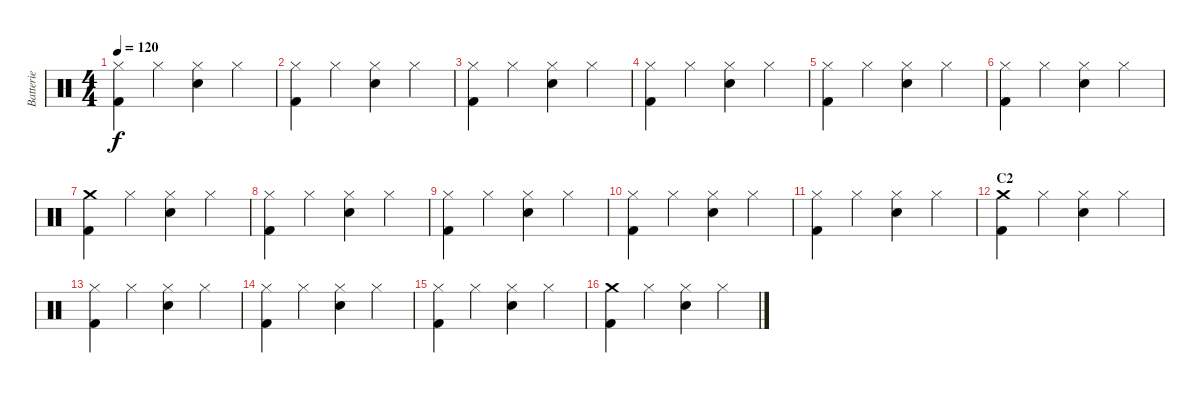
\track ("Batterie" "Batterie") {instrument percussion}
\staff {score}
\articulation defaults
\ts (4 4)
\tempo 120
\clef neutral
\ks c
("Hi-Hat (closed)" "Kick (hit) 2").4{dy f} "Hi-Hat (closed)".4 ("Hi-Hat (closed)" "Snare (hit) 2").4 "Hi-Hat (closed)".4 |
("Hi-Hat (closed)" "Kick (hit) 2").4 "Hi-Hat (closed)".4 ("Hi-Hat (closed)" "Snare (hit) 2").4 "Hi-Hat (closed)".4 |
("Hi-Hat (closed)" "Kick (hit) 2").4 "Hi-Hat (closed)".4 ("Hi-Hat (closed)" "Snare (hit) 2").4 "Hi-Hat (closed)".4 |
("Hi-Hat (closed)" "Kick (hit) 2").4 "Hi-Hat (closed)".4 ("Hi-Hat (closed)" "Snare (hit) 2").4 "Hi-Hat (closed)".4 |
("Hi-Hat (closed)" "Kick (hit) 2").4 "Hi-Hat (closed)".4 ("Hi-Hat (closed)" "Snare (hit) 2").4 "Hi-Hat (closed)".4 |
("Hi-Hat (closed)" "Kick (hit) 2").4 "Hi-Hat (closed)".4 ("Hi-Hat (closed)" "Snare (hit) 2").4 "Hi-Hat (closed)".4 |
("Crash medium (hit)" "Kick (hit) 2").4 "Hi-Hat (closed)".4 ("Hi-Hat (closed)" "Snare (hit) 2").4 "Hi-Hat (closed)".4 |
("Hi-Hat (closed)" "Kick (hit) 2").4 "Hi-Hat (closed)".4 ("Hi-Hat (closed)" "Snare (hit) 2").4 "Hi-Hat (closed)".4 |
("Hi-Hat (closed)" "Kick (hit) 2").4 "Hi-Hat (closed)".4 ("Hi-Hat (closed)" "Snare (hit) 2").4 "Hi-Hat (closed)".4 |
("Hi-Hat (closed)" "Kick (hit) 2").4 "Hi-Hat (closed)".4 ("Hi-Hat (closed)" "Snare (hit) 2").4 "Hi-Hat (closed)".4 |
("Hi-Hat (closed)" "Kick (hit) 2").4 "Hi-Hat (closed)".4 ("Hi-Hat (closed)" "Snare (hit) 2").4 "Hi-Hat (closed)".4 |
\section ("" "C2")
("Crash medium (hit)" "Kick (hit) 2").4 "Hi-Hat (closed)".4 ("Hi-Hat (closed)" "Snare (hit) 2").4 "Hi-Hat (closed)".4 |
("Hi-Hat (closed)" "Kick (hit) 2").4 "Hi-Hat (closed)".4 ("Hi-Hat (closed)" "Snare (hit) 2").4 "Hi-Hat (closed)".4 |
("Hi-Hat (closed)" "Kick (hit) 2").4 "Hi-Hat (closed)".4 ("Hi-Hat (closed)" "Snare (hit) 2").4 "Hi-Hat (closed)".4 |
("Hi-Hat (closed)" "Kick (hit) 2").4 "Hi-Hat (closed)".4 ("Hi-Hat (closed)" "Snare (hit) 2").4 "Hi-Hat (closed)".4 |
("Crash medium (hit)" "Kick (hit) 2").4 "Hi-Hat (closed)".4 ("Hi-Hat (closed)" "Snare (hit) 2").4 "Hi-Hat (closed)".4
